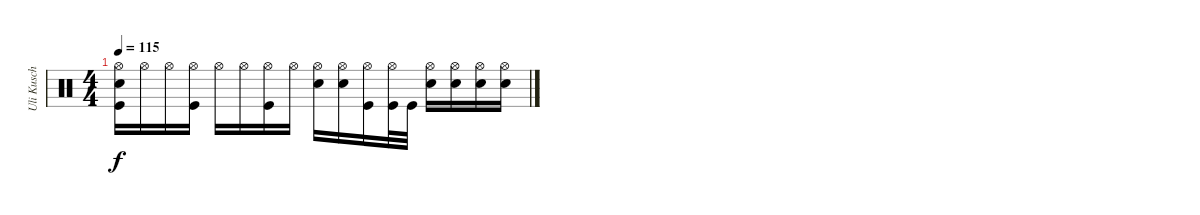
\track ("Uli Kusch (Drums)" "Uli Kusch ") {instrument percussion}
\staff {score}
\articulation defaults
\ts (4 4)
\tempo 115
\clef neutral
\ks c
("Hi-Hat (open)" "Snare (hit) 2" "Kick (hit)").16{dy f} "Hi-Hat (open)".16 "Hi-Hat (open)".16 ("Hi-Hat (open)" "Kick (hit)").16 "Hi-Hat (open)".16 "Hi-Hat (open)".16 ("Hi-Hat (open)" "Kick (hit)").16 "Hi-Hat (open)".16 ("Hi-Hat (open)" "Snare (hit) 2").16 ("Hi-Hat (open)" "Snare (hit) 2").16 ("Hi-Hat (open)" "Kick (hit)").16 ("Hi-Hat (open)" "Kick (hit)").32 "Kick (hit)".32 ("Hi-Hat (open)" "Snare (hit) 2").16 ("Hi-Hat (open)" "Snare (hit) 2").16 ("Hi-Hat (open)" "Snare (hit) 2").16 ("Hi-Hat (open)" "Snare (hit) 2").16
